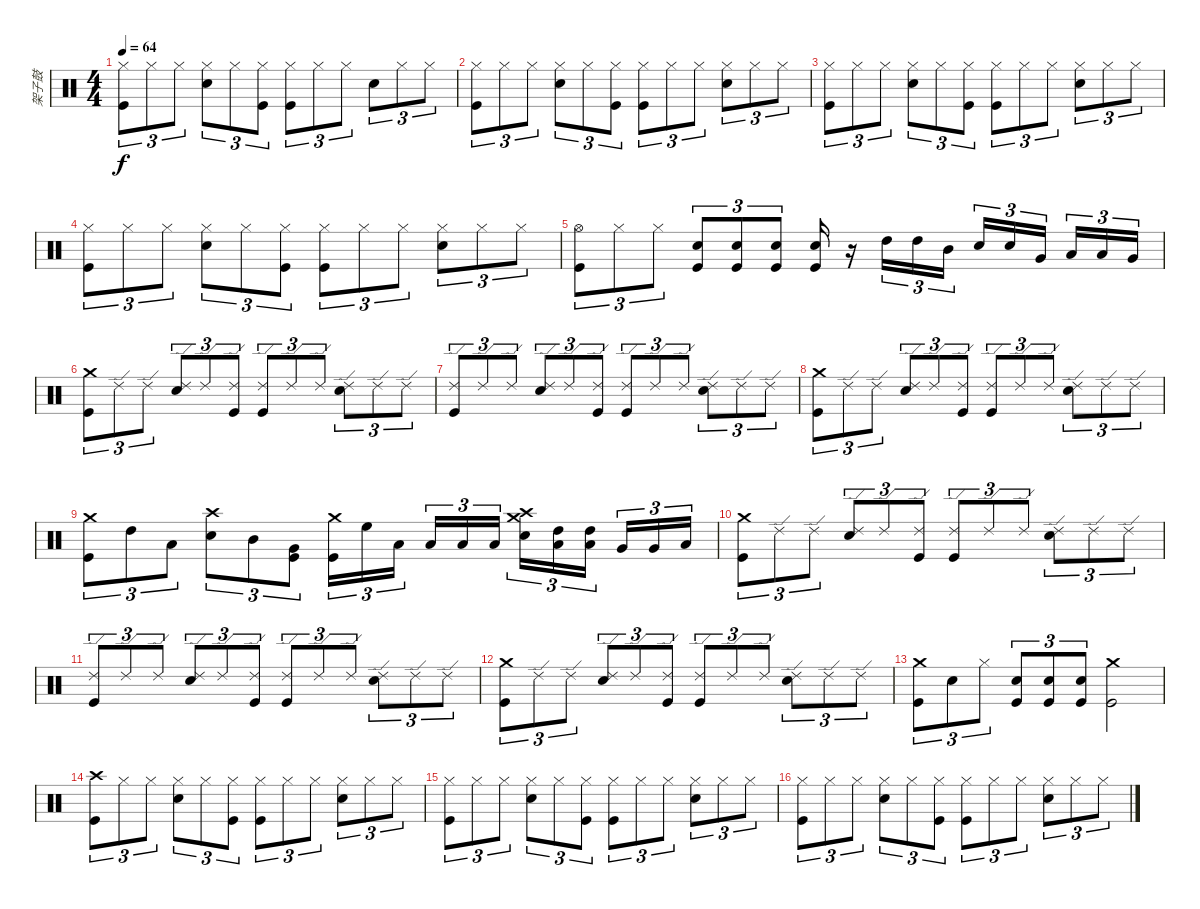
\track ("架子鼓" "架子鼓") {instrument percussion}
\staff {score}
\articulation defaults
\ts (4 4)
\tempo 64
\clef neutral
\ks c
("Kick (hit)" "Hi-Hat (closed)").8{tu (3 2) dy f} "Hi-Hat (closed)".8{tu (3 2)} "Hi-Hat (closed)".8{tu (3 2)} ("Electric Snare (hit)" "Hi-Hat (closed)").8{tu (3 2)} "Hi-Hat (closed)".8{tu (3 2)} ("Kick (hit)" "Hi-Hat (closed)").8{tu (3 2)} ("Hi-Hat (closed)" "Kick (hit)").8{tu (3 2)} "Hi-Hat (closed)".8{tu (3 2)} "Hi-Hat (closed)".8{tu (3 2)} "Electric Snare (hit)".8{tu (3 2)} "Hi-Hat (closed)".8{tu (3 2)} "Hi-Hat (closed)".8{tu (3 2)} |
("Kick (hit)" "Hi-Hat (closed)").8{tu (3 2)} "Hi-Hat (closed)".8{tu (3 2)} "Hi-Hat (closed)".8{tu (3 2)} ("Electric Snare (hit)" "Hi-Hat (closed)").8{tu (3 2)} "Hi-Hat (closed)".8{tu (3 2)} ("Kick (hit)" "Hi-Hat (closed)").8{tu (3 2)} ("Hi-Hat (closed)" "Kick (hit)").8{tu (3 2)} "Hi-Hat (closed)".8{tu (3 2)} "Hi-Hat (closed)".8{tu (3 2)} ("Hi-Hat (closed)" "Electric Snare (hit)").8{tu (3 2)} "Hi-Hat (closed)".8{tu (3 2)} "Hi-Hat (closed)".8{tu (3 2)} |
("Kick (hit)" "Hi-Hat (closed)").8{tu (3 2)} "Hi-Hat (closed)".8{tu (3 2)} "Hi-Hat (closed)".8{tu (3 2)} ("Electric Snare (hit)" "Hi-Hat (closed)").8{tu (3 2)} "Hi-Hat (closed)".8{tu (3 2)} ("Kick (hit)" "Hi-Hat (closed)").8{tu (3 2)} ("Hi-Hat (closed)" "Kick (hit)").8{tu (3 2)} "Hi-Hat (closed)".8{tu (3 2)} "Hi-Hat (closed)".8{tu (3 2)} ("Hi-Hat (closed)" "Electric Snare (hit)").8{tu (3 2)} "Hi-Hat (closed)".8{tu (3 2)} "Hi-Hat (closed)".8{tu (3 2)} |
("Kick (hit)" "Hi-Hat (closed)").8{tu (3 2)} "Hi-Hat (closed)".8{tu (3 2)} "Hi-Hat (closed)".8{tu (3 2)} ("Electric Snare (hit)" "Hi-Hat (closed)").8{tu (3 2)} "Hi-Hat (closed)".8{tu (3 2)} ("Kick (hit)" "Hi-Hat (closed)").8{tu (3 2)} ("Hi-Hat (closed)" "Kick (hit)").8{tu (3 2)} "Hi-Hat (closed)".8{tu (3 2)} "Hi-Hat (closed)".8{tu (3 2)} ("Hi-Hat (closed)" "Electric Snare (hit)").8{tu (3 2)} "Hi-Hat (closed)".8{tu (3 2)} "Hi-Hat (closed)".8{tu (3 2)} |
("Kick (hit)" "Hi-Hat (open)").8{tu (3 2)} "Hi-Hat (closed)".8{tu (3 2)} "Hi-Hat (closed)".8{tu (3 2)} ("Electric Snare (hit)" "Kick (hit)").8{tu (3 2)} ("Electric Snare (hit)" "Kick (hit)").8{tu (3 2)} ("Electric Snare (hit)" "Kick (hit)").8{tu (3 2)} ("Electric Snare (hit)" "Kick (hit)").16 r.16 "High Tom (hit)".16{tu (3 2)} "High Tom (hit)".16{tu (3 2)} "Mid Tom (hit)".16{tu (3 2)} "Electric Snare (hit)".16{tu (3 2)} "Electric Snare (hit)".16{tu (3 2)} "Very Low Tom (hit)".16{tu (3 2)} "Low Tom (hit)".16{tu (3 2)} "Low Tom (hit)".16{tu (3 2)} "Very Low Tom (hit)".16{tu (3 2)} |
("Kick (hit)" "Crash medium (hit)").8{tu (3 2)} "Ride (edge) 2".8{tu (3 2)} "Ride (edge) 2".8{tu (3 2)} ("Electric Snare (hit)" "Ride (edge) 2").8{tu (3 2)} "Ride (edge) 2".8{tu (3 2)} ("Ride (edge) 2" "Kick (hit)").8{tu (3 2)} ("Kick (hit)" "Ride (edge) 2").8{tu (3 2)} "Ride (edge) 2".8{tu (3 2)} "Ride (edge) 2".8{tu (3 2)} ("Ride (edge) 2" "Electric Snare (hit)").8{tu (3 2)} "Ride (edge) 2".8{tu (3 2)} "Ride (edge) 2".8{tu (3 2)} |
("Kick (hit)" "Ride (edge) 2").8{tu (3 2)} "Ride (edge) 2".8{tu (3 2)} "Ride (edge) 2".8{tu (3 2)} ("Electric Snare (hit)" "Ride (edge) 2").8{tu (3 2)} "Ride (edge) 2".8{tu (3 2)} ("Ride (edge) 2" "Kick (hit)").8{tu (3 2)} ("Kick (hit)" "Ride (edge) 2").8{tu (3 2)} "Ride (edge) 2".8{tu (3 2)} "Ride (edge) 2".8{tu (3 2)} ("Ride (edge) 2" "Electric Snare (hit)").8{tu (3 2)} "Ride (edge) 2".8{tu (3 2)} "Ride (edge) 2".8{tu (3 2)} |
("Kick (hit)" "Crash medium (hit)").8{tu (3 2)} "Ride (edge) 2".8{tu (3 2)} "Ride (edge) 2".8{tu (3 2)} ("Electric Snare (hit)" "Ride (edge) 2").8{tu (3 2)} "Ride (edge) 2".8{tu (3 2)} ("Ride (edge) 2" "Kick (hit)").8{tu (3 2)} ("Kick (hit)" "Ride (edge) 2").8{tu (3 2)} "Ride (edge) 2".8{tu (3 2)} "Ride (edge) 2".8{tu (3 2)} ("Ride (edge) 2" "Electric Snare (hit)").8{tu (3 2)} "Ride (edge) 2".8{tu (3 2)} "Ride (edge) 2".8{tu (3 2)} |
("Kick (hit)" "Crash medium (hit)").8{tu (3 2)} "High Tom (hit)".8{tu (3 2)} "Low Tom (hit)".8{tu (3 2)} ("Electric Snare (hit)" "Crash high (hit)").8{tu (3 2)} "Mid Tom (hit)".8{tu (3 2)} ("Very Low Tom (hit)" "Kick (hit)").8{tu (3 2)} ("Kick (hit)" "Crash medium (hit)").16{tu (3 2)} "High Floor Tom (hit)".16{tu (3 2)} "Low Tom (hit)".16{tu (3 2)} "Low Tom (hit)".16{tu (3 2)} "Low Tom (hit)".16{tu (3 2)} "Low Tom (hit)".16{tu (3 2)} ("Crash medium (hit)" "Crash high (hit)" "Electric Snare (hit)").16{tu (3 2)} ("Low Tom (hit)" "High Tom (hit)").16{tu (3 2)} ("Low Tom (hit)" "High Tom (hit)").16{tu (3 2)} "Very Low Tom (hit)".16{tu (3 2)} "Very Low Tom (hit)".16{tu (3 2)} "Low Tom (hit)".16{tu (3 2)} |
("Kick (hit)" "Crash medium (hit)").8{tu (3 2)} "Ride (edge) 2".8{tu (3 2)} "Ride (edge) 2".8{tu (3 2)} ("Electric Snare (hit)" "Ride (edge) 2").8{tu (3 2)} "Ride (edge) 2".8{tu (3 2)} ("Ride (edge) 2" "Kick (hit)").8{tu (3 2)} ("Kick (hit)" "Ride (edge) 2").8{tu (3 2)} "Ride (edge) 2".8{tu (3 2)} "Ride (edge) 2".8{tu (3 2)} ("Ride (edge) 2" "Electric Snare (hit)").8{tu (3 2)} "Ride (edge) 2".8{tu (3 2)} "Ride (edge) 2".8{tu (3 2)} |
("Kick (hit)" "Ride (edge) 2").8{tu (3 2)} "Ride (edge) 2".8{tu (3 2)} "Ride (edge) 2".8{tu (3 2)} ("Electric Snare (hit)" "Ride (edge) 2").8{tu (3 2)} "Ride (edge) 2".8{tu (3 2)} ("Ride (edge) 2" "Kick (hit)").8{tu (3 2)} ("Kick (hit)" "Ride (edge) 2").8{tu (3 2)} "Ride (edge) 2".8{tu (3 2)} "Ride (edge) 2".8{tu (3 2)} ("Ride (edge) 2" "Electric Snare (hit)").8{tu (3 2)} "Ride (edge) 2".8{tu (3 2)} "Ride (edge) 2".8{tu (3 2)} |
("Kick (hit)" "Crash medium (hit)").8{tu (3 2)} "Ride (edge) 2".8{tu (3 2)} "Ride (edge) 2".8{tu (3 2)} ("Electric Snare (hit)" "Ride (edge) 2").8{tu (3 2)} "Ride (edge) 2".8{tu (3 2)} ("Ride (edge) 2" "Kick (hit)").8{tu (3 2)} ("Kick (hit)" "Ride (edge) 2").8{tu (3 2)} "Ride (edge) 2".8{tu (3 2)} "Ride (edge) 2".8{tu (3 2)} ("Ride (edge) 2" "Electric Snare (hit)").8{tu (3 2)} "Ride (edge) 2".8{tu (3 2)} "Ride (edge) 2".8{tu (3 2)} |
("Kick (hit)" "Crash medium (hit)").8{tu (3 2)} "Electric Snare (hit)".8{tu (3 2)} "Hi-Hat (closed)".8{tu (3 2)} ("Kick (hit)" "Electric Snare (hit)").8{tu (3 2)} ("Kick (hit)" "Electric Snare (hit)").8{tu (3 2)} ("Kick (hit)" "Electric Snare (hit)").8{tu (3 2)} ("Crash medium (hit)" "Kick (hit)").2 |
("Kick (hit)" "Crash high (hit)").8{tu (3 2)} "Hi-Hat (closed)".8{tu (3 2)} "Hi-Hat (closed)".8{tu (3 2)} ("Electric Snare (hit)" "Hi-Hat (closed)").8{tu (3 2)} "Hi-Hat (closed)".8{tu (3 2)} ("Hi-Hat (closed)" "Kick (hit)").8{tu (3 2)} ("Kick (hit)" "Hi-Hat (closed)").8{tu (3 2)} "Hi-Hat (closed)".8{tu (3 2)} "Hi-Hat (closed)".8{tu (3 2)} ("Electric Snare (hit)" "Hi-Hat (closed)").8{tu (3 2)} "Hi-Hat (closed)".8{tu (3 2)} "Hi-Hat (closed)".8{tu (3 2)} |
("Kick (hit)" "Hi-Hat (closed)").8{tu (3 2)} "Hi-Hat (closed)".8{tu (3 2)} "Hi-Hat (closed)".8{tu (3 2)} ("Electric Snare (hit)" "Hi-Hat (closed)").8{tu (3 2)} "Hi-Hat (closed)".8{tu (3 2)} ("Kick (hit)" "Hi-Hat (closed)").8{tu (3 2)} ("Hi-Hat (closed)" "Kick (hit)").8{tu (3 2)} "Hi-Hat (closed)".8{tu (3 2)} "Hi-Hat (closed)".8{tu (3 2)} ("Hi-Hat (closed)" "Electric Snare (hit)").8{tu (3 2)} "Hi-Hat (closed)".8{tu (3 2)} "Hi-Hat (closed)".8{tu (3 2)} |
("Kick (hit)" "Hi-Hat (closed)").8{tu (3 2)} "Hi-Hat (closed)".8{tu (3 2)} "Hi-Hat (closed)".8{tu (3 2)} ("Electric Snare (hit)" "Hi-Hat (closed)").8{tu (3 2)} "Hi-Hat (closed)".8{tu (3 2)} ("Kick (hit)" "Hi-Hat (closed)").8{tu (3 2)} ("Hi-Hat (closed)" "Kick (hit)").8{tu (3 2)} "Hi-Hat (closed)".8{tu (3 2)} "Hi-Hat (closed)".8{tu (3 2)} ("Hi-Hat (closed)" "Electric Snare (hit)").8{tu (3 2)} "Hi-Hat (closed)".8{tu (3 2)} "Hi-Hat (closed)".8{tu (3 2)}
